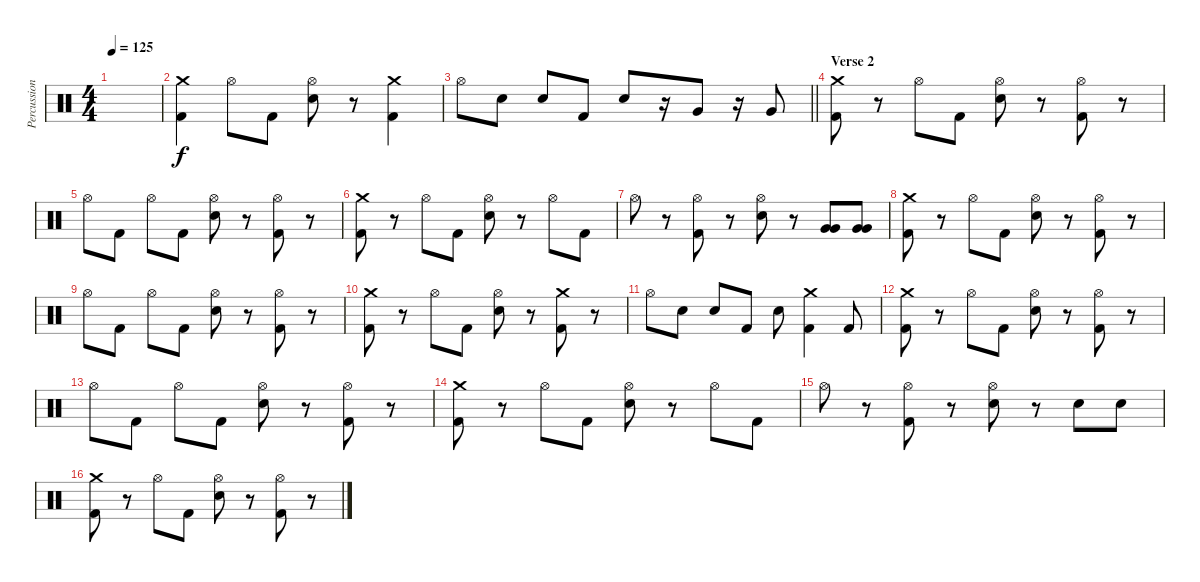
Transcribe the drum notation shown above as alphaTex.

\track ("Percussion" "Percussion") {instrument percussion}
\staff {score}
\articulation defaults
\ts (4 4)
\tempo 125
\clef neutral
\ks c
|
("Crash medium (hit)" "Kick (hit) 2").4 "Hi-Hat (open)".8 "Kick (hit) 2".8 ("Hi-Hat (open)" "Electric Snare (hit)").8 r.8 ("Crash medium (hit)" "Kick (hit) 2").4 |
\barLineRight lightlight "Hi-Hat (open)".8 "Electric Snare (hit)".8 "Electric Snare (hit)".8 "Kick (hit) 2".8 "Electric Snare (hit)".8
r.16 "Very Low Tom (hit)".8 r.16 "Very Low Tom (hit)".8 |
\section ("" "Verse 2")
("Crash medium (hit)" "Kick (hit) 2").8 r.8 "Hi-Hat (open)".8 "Kick (hit) 2".8 ("Hi-Hat (open)" "Electric Snare (hit)").8 r.8 ("Hi-Hat (open)" "Kick (hit) 2").8 r.8 |
"Hi-Hat (open)".8 "Kick (hit) 2".8 "Hi-Hat (open)".8 "Kick (hit) 2".8 ("Hi-Hat (open)" "Electric Snare (hit)").8 r.8 ("Hi-Hat (open)" "Kick (hit) 2").8 r.8 |
("Crash medium (hit)" "Kick (hit) 2").8 r.8 "Hi-Hat (open)".8 "Kick (hit) 2".8 ("Hi-Hat (open)" "Electric Snare (hit)").8 r.8 "Hi-Hat (open)".8 "Kick (hit) 2".8 |
"Hi-Hat (open)".8 r.8 ("Hi-Hat (open)" "Kick (hit) 2").8 r.8 ("Hi-Hat (open)" "Electric Snare (hit)").8 r.8 ("Very Low Tom (hit)" "Very Low Tom (hit)").8 ("Very Low Tom (hit)" "Very Low Tom (hit)").8 |
("Crash medium (hit)" "Kick (hit) 2").8 r.8 "Hi-Hat (open)".8 "Kick (hit) 2".8 ("Hi-Hat (open)" "Electric Snare (hit)").8 r.8 ("Hi-Hat (open)" "Kick (hit) 2").8 r.8 |
"Hi-Hat (open)".8 "Kick (hit) 2".8 "Hi-Hat (open)".8 "Kick (hit) 2".8 ("Hi-Hat (open)" "Electric Snare (hit)").8 r.8 ("Hi-Hat (open)" "Kick (hit) 2").8 r.8 |
("Crash medium (hit)" "Kick (hit) 2").8 r.8 "Hi-Hat (open)".8 "Kick (hit) 2".8 ("Hi-Hat (open)" "Electric Snare (hit)").8 r.8 ("Crash medium (hit)" "Kick (hit) 2").8 r.8 |
"Hi-Hat (open)".8 "Electric Snare (hit)".8 "Electric Snare (hit)".8 "Kick (hit) 2".8 "Electric Snare (hit)".8 ("Crash medium (hit)" "Kick (hit) 2").4 "Kick (hit) 2".8 |
("Crash medium (hit)" "Kick (hit) 2").8 r.8 "Hi-Hat (open)".8 "Kick (hit) 2".8 ("Hi-Hat (open)" "Electric Snare (hit)").8 r.8 ("Hi-Hat (open)" "Kick (hit) 2").8 r.8 |
"Hi-Hat (open)".8 "Kick (hit) 2".8 "Hi-Hat (open)".8 "Kick (hit) 2".8 ("Hi-Hat (open)" "Electric Snare (hit)").8 r.8 ("Hi-Hat (open)" "Kick (hit) 2").8 r.8 |
("Crash medium (hit)" "Kick (hit) 2").8 r.8 "Hi-Hat (open)".8 "Kick (hit) 2".8 ("Hi-Hat (open)" "Electric Snare (hit)").8 r.8 "Hi-Hat (open)".8 "Kick (hit) 2".8 |
"Hi-Hat (open)".8 r.8 ("Hi-Hat (open)" "Kick (hit) 2").8 r.8 ("Hi-Hat (open)" "Electric Snare (hit)").8 r.8 "Electric Snare (hit)".8 "Electric Snare (hit)".8 |
("Crash medium (hit)" "Kick (hit) 2").8 r.8 "Hi-Hat (open)".8 "Kick (hit) 2".8 ("Hi-Hat (open)" "Electric Snare (hit)").8 r.8 ("Hi-Hat (open)" "Kick (hit) 2").8 r.8
